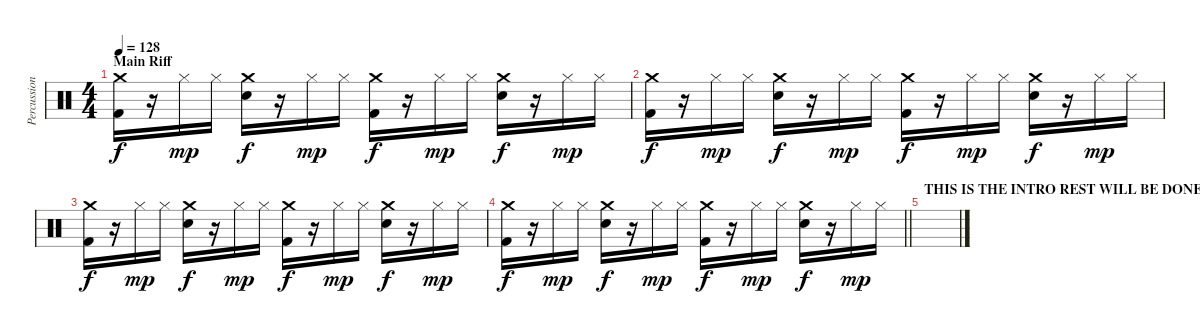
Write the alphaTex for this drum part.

\track ("Percussion" "Percussion") {instrument percussion}
\staff {score}
\articulation defaults
\ts (4 4)
\section ("" "Main Riff")
\tempo 128
\clef neutral
\ks c
("Crash medium (hit)" "Kick (hit) 2").16{dy f} r.16 "Hi-Hat (closed)".16{dy mp} "Hi-Hat (closed)".16 ("Crash medium (hit)" "Snare (hit) 2").16{dy f} r.16 "Hi-Hat (closed)".16{dy mp} "Hi-Hat (closed)".16 ("Crash medium (hit)" "Kick (hit) 2").16{dy f} r.16 "Hi-Hat (closed)".16{dy mp} "Hi-Hat (closed)".16 ("Crash medium (hit)" "Snare (hit) 2").16{dy f} r.16 "Hi-Hat (closed)".16{dy mp} "Hi-Hat (closed)".16 |
("Crash medium (hit)" "Kick (hit) 2").16{dy f} r.16 "Hi-Hat (closed)".16{dy mp} "Hi-Hat (closed)".16 ("Crash medium (hit)" "Snare (hit) 2").16{dy f} r.16 "Hi-Hat (closed)".16{dy mp} "Hi-Hat (closed)".16 ("Crash medium (hit)" "Kick (hit) 2").16{dy f} r.16 "Hi-Hat (closed)".16{dy mp} "Hi-Hat (closed)".16 ("Crash medium (hit)" "Snare (hit) 2").16{dy f} r.16 "Hi-Hat (closed)".16{dy mp} "Hi-Hat (closed)".16 |
("Crash medium (hit)" "Kick (hit) 2").16{dy f} r.16 "Hi-Hat (closed)".16{dy mp} "Hi-Hat (closed)".16 ("Crash medium (hit)" "Snare (hit) 2").16{dy f} r.16 "Hi-Hat (closed)".16{dy mp} "Hi-Hat (closed)".16 ("Crash medium (hit)" "Kick (hit) 2").16{dy f} r.16 "Hi-Hat (closed)".16{dy mp} "Hi-Hat (closed)".16 ("Crash medium (hit)" "Snare (hit) 2").16{dy f} r.16 "Hi-Hat (closed)".16{dy mp} "Hi-Hat (closed)".16 |
\barLineRight lightlight
("Crash medium (hit)" "Kick (hit) 2").16{dy f} r.16 "Hi-Hat (closed)".16{dy mp} "Hi-Hat (closed)".16 ("Crash medium (hit)" "Snare (hit) 2").16{dy f} r.16 "Hi-Hat (closed)".16{dy mp} "Hi-Hat (closed)".16 ("Crash medium (hit)" "Kick (hit) 2").16{dy f} r.16 "Hi-Hat (closed)".16{dy mp} "Hi-Hat (closed)".16 ("Crash medium (hit)" "Snare (hit) 2").16{dy f} r.16 "Hi-Hat (closed)".16{dy mp} "Hi-Hat (closed)".16 |
\section ("" "THIS IS THE INTRO REST WILL BE DONE SOON!")
